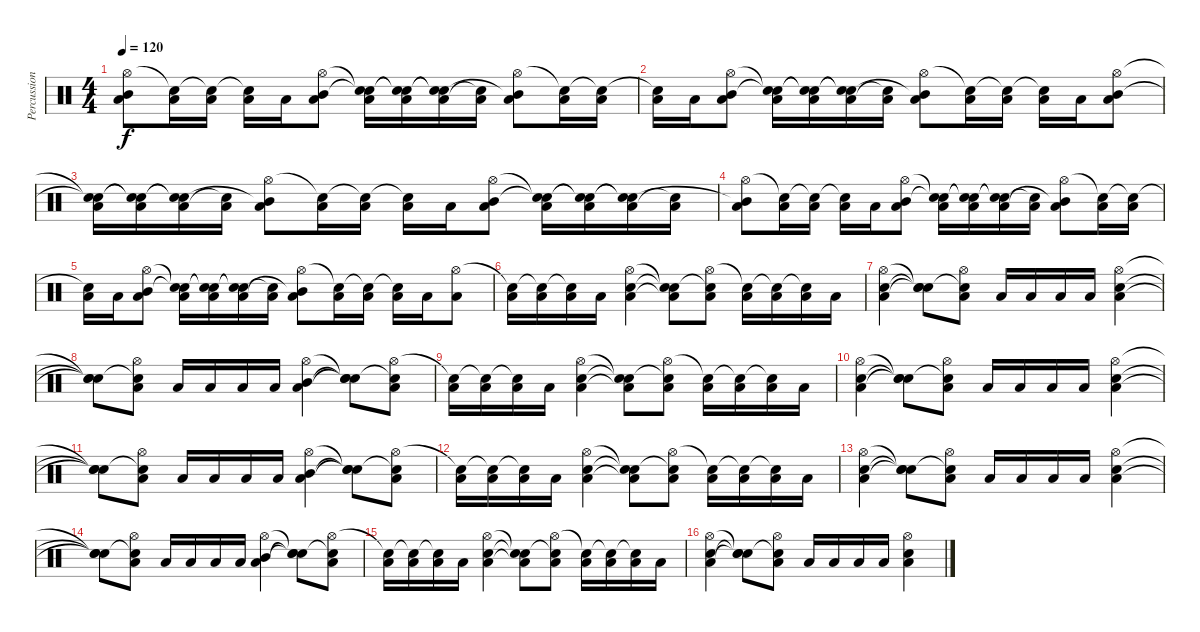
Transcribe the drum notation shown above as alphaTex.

\track ("Percussion" "Percussion") {instrument percussion}
\staff {score}
\articulation defaults
\ts (4 4)
\tempo 120
\clef neutral
\ks c
("Hi-Hat (open)" "Low Tom (hit)" "Mid Tom (hit)"{t}).8{dy f} ("Snare (hit)"{t} "Low Tom (hit)").16 ("Snare (hit)"{t} "Low Tom (hit)").16 ("Snare (hit)"{t} "Low Tom (hit)").16 "Low Tom (hit)".16 ("Hi-Hat (open)" "Low Tom (hit)" "Mid Tom (hit)").8 ("Snare (hit)"{t} "Low Tom (hit)" "Snare (hit)"{t}).16 ("Snare (hit)"{t} "Low Tom (hit)" "Snare (hit)"{t}).16 ("Snare (hit)"{t} "Low Tom (hit)" "Snare (hit)"{t}).16 ("Low Tom (hit)" "Snare (hit)"{t}).16 ("Hi-Hat (open)" "Low Tom (hit)" "Mid Tom (hit)"{t}).8 ("Snare (hit)"{t} "Low Tom (hit)").16 ("Snare (hit)"{t} "Low Tom (hit)").16 |
("Snare (hit)"{t} "Low Tom (hit)").16 "Low Tom (hit)".16 ("Hi-Hat (open)" "Low Tom (hit)" "Mid Tom (hit)").8 ("Snare (hit)"{t} "Low Tom (hit)" "Snare (hit)"{t}).16 ("Snare (hit)"{t} "Low Tom (hit)" "Snare (hit)"{t}).16 ("Snare (hit)"{t} "Low Tom (hit)" "Snare (hit)"{t}).16 ("Low Tom (hit)" "Snare (hit)"{t}).16 ("Hi-Hat (open)" "Low Tom (hit)" "Mid Tom (hit)"{t}).8 ("Snare (hit)"{t} "Low Tom (hit)").16 ("Snare (hit)"{t} "Low Tom (hit)").16 ("Snare (hit)"{t} "Low Tom (hit)").16 "Low Tom (hit)".16 ("Hi-Hat (open)" "Low Tom (hit)" "Mid Tom (hit)").8 |
("Snare (hit)"{t} "Low Tom (hit)" "Snare (hit)"{t}).16 ("Snare (hit)"{t} "Low Tom (hit)" "Snare (hit)"{t}).16 ("Snare (hit)"{t} "Low Tom (hit)" "Snare (hit)"{t}).16 ("Low Tom (hit)" "Snare (hit)"{t}).16 ("Hi-Hat (open)" "Low Tom (hit)" "Mid Tom (hit)"{t}).8 ("Snare (hit)"{t} "Low Tom (hit)").16 ("Snare (hit)"{t} "Low Tom (hit)").16 ("Snare (hit)"{t} "Low Tom (hit)").16 "Low Tom (hit)".16 ("Hi-Hat (open)" "Low Tom (hit)" "Mid Tom (hit)").8 ("Snare (hit)"{t} "Low Tom (hit)" "Snare (hit)"{t}).16 ("Snare (hit)"{t} "Low Tom (hit)" "Snare (hit)"{t}).16 ("Snare (hit)"{t} "Low Tom (hit)" "Snare (hit)"{t}).16 ("Low Tom (hit)" "Snare (hit)"{t}).16 |
("Hi-Hat (open)" "Low Tom (hit)" "Mid Tom (hit)"{t}).8 ("Snare (hit)"{t} "Low Tom (hit)").16 ("Snare (hit)"{t} "Low Tom (hit)").16 ("Snare (hit)"{t} "Low Tom (hit)").16 "Low Tom (hit)".16 ("Hi-Hat (open)" "Low Tom (hit)" "Mid Tom (hit)").8 ("Snare (hit)"{t} "Low Tom (hit)" "Snare (hit)"{t}).16 ("Snare (hit)"{t} "Low Tom (hit)" "Snare (hit)"{t}).16 ("Snare (hit)"{t} "Low Tom (hit)" "Snare (hit)"{t}).16 ("Low Tom (hit)" "Snare (hit)"{t}).16 ("Hi-Hat (open)" "Low Tom (hit)" "Mid Tom (hit)"{t}).8 ("Snare (hit)"{t} "Low Tom (hit)").16 ("Snare (hit)"{t} "Low Tom (hit)").16 |
("Snare (hit)"{t} "Low Tom (hit)").16 "Low Tom (hit)".16 ("Hi-Hat (open)" "Low Tom (hit)" "Mid Tom (hit)").8 ("Snare (hit)"{t} "Low Tom (hit)" "Snare (hit)"{t}).16 ("Snare (hit)"{t} "Low Tom (hit)" "Snare (hit)"{t}).16 ("Snare (hit)"{t} "Low Tom (hit)" "Snare (hit)"{t}).16 ("Low Tom (hit)" "Snare (hit)"{t}).16 ("Hi-Hat (open)" "Low Tom (hit)" "Mid Tom (hit)"{t}).8 ("Snare (hit)"{t} "Low Tom (hit)").16 ("Snare (hit)"{t} "Low Tom (hit)").16 ("Snare (hit)"{t} "Low Tom (hit)").16 "Low Tom (hit)".16 ("Hi-Hat (open)" "Low Tom (hit)").8 |
("Snare (hit)"{t} "Low Tom (hit)").16 ("Snare (hit)"{t} "Low Tom (hit)").16 ("Snare (hit)"{t} "Low Tom (hit)").16 "Low Tom (hit)".16 ("Hi-Hat (open)" "Low Tom (hit)" "Electric Snare (hit)").4 ("Snare (hit)"{t} "Low Tom (hit)"{t} "Snare (hit)"{t}).8 ("Hi-Hat (open)" "Low Tom (hit)" "Electric Snare (hit)"{t}).8 ("Snare (hit)"{t} "Low Tom (hit)").16 ("Snare (hit)"{t} "Low Tom (hit)").16 ("Snare (hit)"{t} "Low Tom (hit)").16 "Low Tom (hit)".16 |
("Hi-Hat (open)" "Low Tom (hit)" "Electric Snare (hit)").4 ("Snare (hit)"{t} "Snare (hit)"{t} "Snare (hit)"{t}).8 ("Hi-Hat (open)" "Low Tom (hit)" "Snare (hit)"{t}).8 "Low Tom (hit)".16 "Low Tom (hit)".16 "Low Tom (hit)".16 "Low Tom (hit)".16 ("Hi-Hat (open)" "Low Tom (hit)" "Electric Snare (hit)").4 |
("Snare (hit)"{t} "Snare (hit)"{t} "Snare (hit)"{t}).8 ("Hi-Hat (open)" "Low Tom (hit)" "Snare (hit)"{t}).8 "Low Tom (hit)".16 "Low Tom (hit)".16 "Low Tom (hit)".16 "Low Tom (hit)".16 ("Hi-Hat (open)" "Low Tom (hit)" "Mid Tom (hit)").4 ("Snare (hit)"{t} "Snare (hit)"{t} "Snare (hit)"{t}).8 ("Hi-Hat (open)" "Low Tom (hit)" "Snare (hit)"{t}).8 |
("Snare (hit)"{t} "Low Tom (hit)").16 ("Snare (hit)"{t} "Low Tom (hit)").16 ("Snare (hit)"{t} "Low Tom (hit)").16 "Low Tom (hit)".16 ("Hi-Hat (open)" "Low Tom (hit)" "Electric Snare (hit)").4 ("Snare (hit)"{t} "Low Tom (hit)"{t} "Snare (hit)"{t}).8 ("Hi-Hat (open)" "Low Tom (hit)" "Electric Snare (hit)"{t}).8 ("Snare (hit)"{t} "Low Tom (hit)").16 ("Snare (hit)"{t} "Low Tom (hit)").16 ("Snare (hit)"{t} "Low Tom (hit)").16 "Low Tom (hit)".16 |
("Hi-Hat (open)" "Low Tom (hit)" "Electric Snare (hit)").4 ("Snare (hit)"{t} "Snare (hit)"{t} "Snare (hit)"{t}).8 ("Hi-Hat (open)" "Low Tom (hit)" "Snare (hit)"{t}).8 "Low Tom (hit)".16 "Low Tom (hit)".16 "Low Tom (hit)".16 "Low Tom (hit)".16 ("Hi-Hat (open)" "Low Tom (hit)" "Electric Snare (hit)").4 |
("Snare (hit)"{t} "Snare (hit)"{t} "Snare (hit)"{t}).8 ("Hi-Hat (open)" "Low Tom (hit)" "Snare (hit)"{t}).8 "Low Tom (hit)".16 "Low Tom (hit)".16 "Low Tom (hit)".16 "Low Tom (hit)".16 ("Hi-Hat (open)" "Low Tom (hit)" "Mid Tom (hit)").4 ("Snare (hit)"{t} "Snare (hit)"{t} "Snare (hit)"{t}).8 ("Hi-Hat (open)" "Low Tom (hit)" "Snare (hit)"{t}).8 |
("Snare (hit)"{t} "Low Tom (hit)").16 ("Snare (hit)"{t} "Low Tom (hit)").16 ("Snare (hit)"{t} "Low Tom (hit)").16 "Low Tom (hit)".16 ("Hi-Hat (open)" "Low Tom (hit)" "Electric Snare (hit)").4 ("Snare (hit)"{t} "Low Tom (hit)"{t} "Snare (hit)"{t}).8 ("Hi-Hat (open)" "Low Tom (hit)" "Electric Snare (hit)"{t}).8 ("Snare (hit)"{t} "Low Tom (hit)").16 ("Snare (hit)"{t} "Low Tom (hit)").16 ("Snare (hit)"{t} "Low Tom (hit)").16 "Low Tom (hit)".16 |
("Hi-Hat (open)" "Low Tom (hit)" "Electric Snare (hit)").4 ("Snare (hit)"{t} "Snare (hit)"{t} "Snare (hit)"{t}).8 ("Hi-Hat (open)" "Low Tom (hit)" "Snare (hit)"{t}).8 "Low Tom (hit)".16 "Low Tom (hit)".16 "Low Tom (hit)".16 "Low Tom (hit)".16 ("Hi-Hat (open)" "Low Tom (hit)" "Electric Snare (hit)").4 |
("Snare (hit)"{t} "Snare (hit)"{t} "Snare (hit)"{t}).8 ("Hi-Hat (open)" "Low Tom (hit)" "Snare (hit)"{t}).8 "Low Tom (hit)".16 "Low Tom (hit)".16 "Low Tom (hit)".16 "Low Tom (hit)".16 ("Hi-Hat (open)" "Low Tom (hit)" "Mid Tom (hit)").4 ("Snare (hit)"{t} "Snare (hit)"{t} "Snare (hit)"{t}).8 ("Hi-Hat (open)" "Low Tom (hit)" "Snare (hit)"{t}).8 |
("Snare (hit)"{t} "Low Tom (hit)").16 ("Snare (hit)"{t} "Low Tom (hit)").16 ("Snare (hit)"{t} "Low Tom (hit)").16 "Low Tom (hit)".16 ("Hi-Hat (open)" "Low Tom (hit)" "Electric Snare (hit)").4 ("Snare (hit)"{t} "Low Tom (hit)"{t} "Snare (hit)"{t}).8 ("Hi-Hat (open)" "Low Tom (hit)" "Electric Snare (hit)"{t}).8 ("Snare (hit)"{t} "Low Tom (hit)").16 ("Snare (hit)"{t} "Low Tom (hit)").16 ("Snare (hit)"{t} "Low Tom (hit)").16 "Low Tom (hit)".16 |
("Hi-Hat (open)" "Low Tom (hit)" "Electric Snare (hit)").4 ("Snare (hit)"{t} "Snare (hit)"{t} "Snare (hit)"{t}).8 ("Hi-Hat (open)" "Low Tom (hit)" "Snare (hit)"{t}).8 "Low Tom (hit)".16 "Low Tom (hit)".16 "Low Tom (hit)".16 "Low Tom (hit)".16 ("Hi-Hat (open)" "Low Tom (hit)" "Electric Snare (hit)").4
